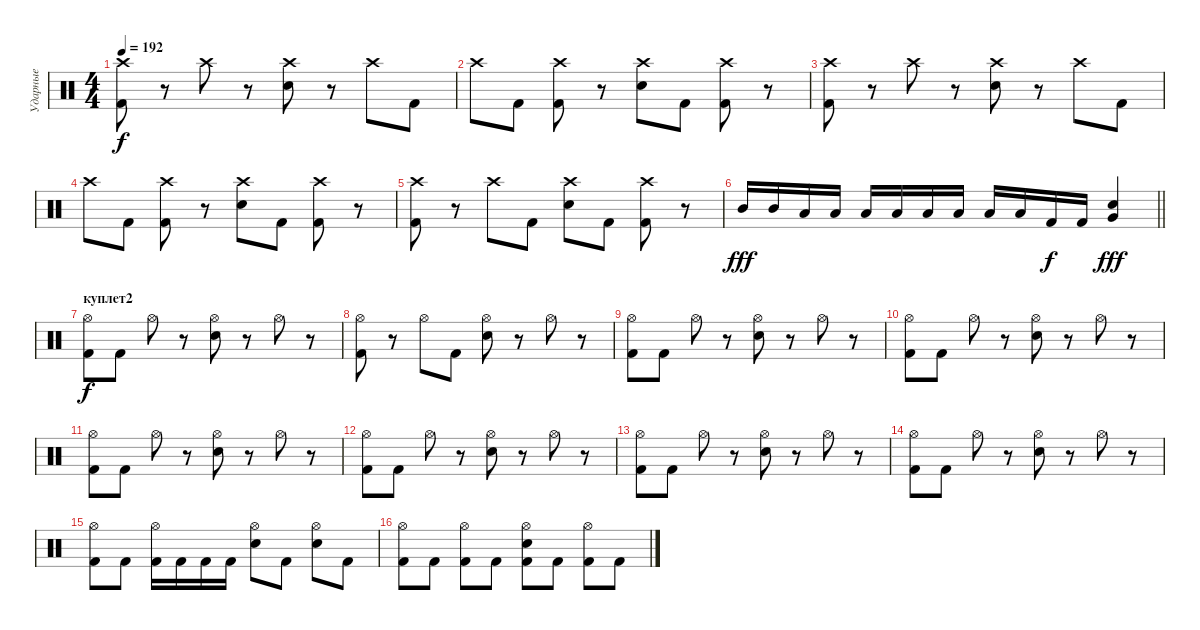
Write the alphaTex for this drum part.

\track ("Ударные" "Ударные") {instrument percussion}
\staff {score}
\articulation defaults
\ts (4 4)
\tempo 192
\clef neutral
\ks c
("Crash high (hit)" "Kick (hit) 2").8{dy f} r.8 "Crash high (hit)".8 r.8 ("Crash high (hit)" "Electric Snare (hit)").8 r.8 "Crash high (hit)".8 "Kick (hit) 2".8 |
"Crash high (hit)".8 "Kick (hit) 2".8 ("Crash high (hit)" "Kick (hit) 2").8 r.8 ("Crash high (hit)" "Electric Snare (hit)").8 "Kick (hit) 2".8 ("Crash high (hit)" "Kick (hit) 2").8 r.8 |
("Crash high (hit)" "Kick (hit) 2").8 r.8 "Crash high (hit)".8 r.8 ("Crash high (hit)" "Electric Snare (hit)").8 r.8 "Crash high (hit)".8 "Kick (hit) 2".8 |
"Crash high (hit)".8 "Kick (hit) 2".8 ("Crash high (hit)" "Kick (hit) 2").8 r.8 ("Crash high (hit)" "Electric Snare (hit)").8 "Kick (hit) 2".8 ("Crash high (hit)" "Kick (hit) 2").8 r.8 |
("Crash high (hit)" "Kick (hit) 2").8 r.8 "Crash high (hit)".8 "Kick (hit) 2".8 ("Crash high (hit)" "Electric Snare (hit)").8 "Kick (hit) 2".8 ("Crash high (hit)" "Kick (hit) 2").8 r.8 |
\barLineRight lightlight "Mid Tom (hit)".16{dy fff} "Mid Tom (hit)".16 "Low Tom (hit)".16 "Low Tom (hit)".16 "Low Tom (hit)".16 "Low Tom (hit)".16 "Low Tom (hit)".16 "Low Tom (hit)".16 "Low Floor Tom (hit)".16 "Low Floor Tom (hit)".16 "Kick (hit) 2".16{dy f} "Kick (hit) 2".16
("Very Low Tom (hit)" "Electric Snare (hit)").4{dy fff} |
\section ("" "куплет2")
("Hi-Hat (open)" "Kick (hit) 2").8{dy f} "Kick (hit) 2".8 "Hi-Hat (open)".8 r.8 ("Hi-Hat (open)" "Electric Snare (hit)").8 r.8 "Hi-Hat (open)".8 r.8 |
("Hi-Hat (open)" "Kick (hit) 2").8 r.8 "Hi-Hat (open)".8 "Kick (hit) 2".8 ("Hi-Hat (open)" "Electric Snare (hit)").8 r.8 "Hi-Hat (open)".8 r.8 |
("Hi-Hat (open)" "Kick (hit) 2").8 "Kick (hit) 2".8 "Hi-Hat (open)".8 r.8 ("Hi-Hat (open)" "Electric Snare (hit)").8 r.8 "Hi-Hat (open)".8 r.8 |
("Hi-Hat (open)" "Kick (hit) 2").8 "Kick (hit) 2".8 "Hi-Hat (open)".8 r.8 ("Hi-Hat (open)" "Electric Snare (hit)").8 r.8 "Hi-Hat (open)".8 r.8 |
("Hi-Hat (open)" "Kick (hit) 2").8 "Kick (hit) 2".8 "Hi-Hat (open)".8 r.8 ("Hi-Hat (open)" "Electric Snare (hit)").8 r.8 "Hi-Hat (open)".8 r.8 |
("Hi-Hat (open)" "Kick (hit) 2").8 "Kick (hit) 2".8 "Hi-Hat (open)".8 r.8 ("Hi-Hat (open)" "Electric Snare (hit)").8 r.8 "Hi-Hat (open)".8 r.8 |
("Hi-Hat (open)" "Kick (hit) 2").8 "Kick (hit) 2".8 "Hi-Hat (open)".8 r.8 ("Hi-Hat (open)" "Electric Snare (hit)").8 r.8 "Hi-Hat (open)".8 r.8 |
("Hi-Hat (open)" "Kick (hit) 2").8 "Kick (hit) 2".8 "Hi-Hat (open)".8 r.8 ("Hi-Hat (open)" "Electric Snare (hit)").8 r.8 "Hi-Hat (open)".8 r.8 |
("Hi-Hat (open)" "Kick (hit) 2").8 "Kick (hit) 2".8 ("Hi-Hat (open)" "Kick (hit) 2").16 "Kick (hit) 2".16 "Kick (hit) 2".16 "Kick (hit) 2".16 ("Hi-Hat (open)" "Electric Snare (hit)").8 "Kick (hit) 2".8 ("Hi-Hat (open)" "Electric Snare (hit)").8 "Kick (hit) 2".8 |
("Hi-Hat (open)" "Kick (hit) 2").8 "Kick (hit) 2".8 ("Hi-Hat (open)" "Kick (hit) 2").8 "Kick (hit) 2".8 ("Hi-Hat (open)" "Electric Snare (hit)" "Kick (hit) 2").8 "Kick (hit) 2".8 ("Hi-Hat (open)" "Kick (hit) 2").8 "Kick (hit) 2".8
